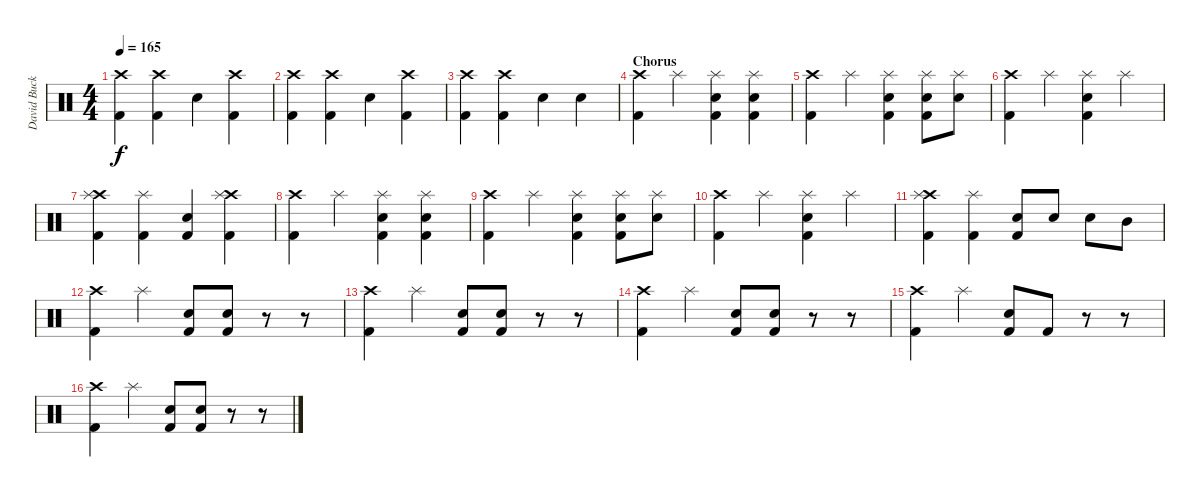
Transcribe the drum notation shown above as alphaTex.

\track ("David Buckner" "David Buck") {instrument percussion}
\staff {score}
\articulation defaults
\ts (4 4)
\tempo 165
\clef neutral
\ks c
("Crash high (hit)" "Kick (hit) 2").4{dy f} ("Crash high (hit)" "Kick (hit) 2").4 "Snare (hit) 2".4 ("Crash high (hit)" "Kick (hit) 2").4 |
("Crash high (hit)" "Kick (hit) 2").4 ("Crash high (hit)" "Kick (hit) 2").4 "Snare (hit) 2".4 ("Crash high (hit)" "Kick (hit) 2").4 |
("Crash high (hit)" "Kick (hit) 2").4 ("Crash high (hit)" "Kick (hit) 2").4 "Snare (hit) 2".4 "Snare (hit) 2".4 |
\section ("" "Chorus")
("Crash high (hit)" "Kick (hit) 2").4 "Splash (hit)".4 ("Splash (hit)" "Snare (hit) 2" "Kick (hit) 2").4 ("Splash (hit)" "Snare (hit) 2" "Kick (hit) 2").4 |
("Crash high (hit)" "Kick (hit) 2").4 "Splash (hit)".4 ("Splash (hit)" "Snare (hit) 2" "Kick (hit) 2").4 ("Splash (hit)" "Snare (hit) 2" "Kick (hit) 2").8 ("Splash (hit)" "Snare (hit) 2").8 |
("Crash high (hit)" "Kick (hit) 2").4 "Splash (hit)".4 ("Splash (hit)" "Snare (hit) 2" "Kick (hit) 2").4 "Splash (hit)".4 |
("Crash high (hit)" "Splash (hit)" "Kick (hit) 2").4 ("Splash (hit)" "Kick (hit) 2").4 ("Snare (hit) 2" "Kick (hit) 2").4 ("Crash high (hit)" "Splash (hit)" "Kick (hit) 2").4 |
("Crash high (hit)" "Kick (hit) 2").4 "Splash (hit)".4 ("Splash (hit)" "Snare (hit) 2" "Kick (hit) 2").4 ("Splash (hit)" "Snare (hit) 2" "Kick (hit) 2").4 |
("Crash high (hit)" "Kick (hit) 2").4 "Splash (hit)".4 ("Splash (hit)" "Snare (hit) 2" "Kick (hit) 2").4 ("Splash (hit)" "Snare (hit) 2" "Kick (hit) 2").8 ("Splash (hit)" "Snare (hit) 2").8 |
("Crash high (hit)" "Kick (hit) 2").4 "Splash (hit)".4 ("Splash (hit)" "Snare (hit) 2" "Kick (hit) 2").4 "Splash (hit)".4 |
("Crash high (hit)" "Splash (hit)" "Kick (hit) 2").4 ("Splash (hit)" "Kick (hit) 2").4 ("Snare (hit) 2" "Kick (hit) 2").8 "Snare (hit) 2".8 "Snare (hit) 2".8 "Mid Tom (hit)".8 |
("Crash high (hit)" "Kick (hit) 2").4 "Splash (hit)".4 ("Snare (hit) 2" "Kick (hit) 2").8 ("Snare (hit) 2" "Kick (hit) 2").8 r.8 r.8 |
("Crash high (hit)" "Kick (hit) 2").4 "Splash (hit)".4 ("Snare (hit) 2" "Kick (hit) 2").8 ("Snare (hit) 2" "Kick (hit) 2").8 r.8 r.8 |
("Crash high (hit)" "Kick (hit) 2").4 "Splash (hit)".4 ("Snare (hit) 2" "Kick (hit) 2").8 ("Snare (hit) 2" "Kick (hit) 2").8 r.8 r.8 |
("Crash high (hit)" "Kick (hit) 2").4 "Splash (hit)".4 ("Snare (hit) 2" "Kick (hit) 2").8 "Kick (hit) 2".8 r.8 r.8 |
("Crash high (hit)" "Kick (hit) 2").4 "Splash (hit)".4 ("Snare (hit) 2" "Kick (hit) 2").8 ("Snare (hit) 2" "Kick (hit) 2").8 r.8 r.8
